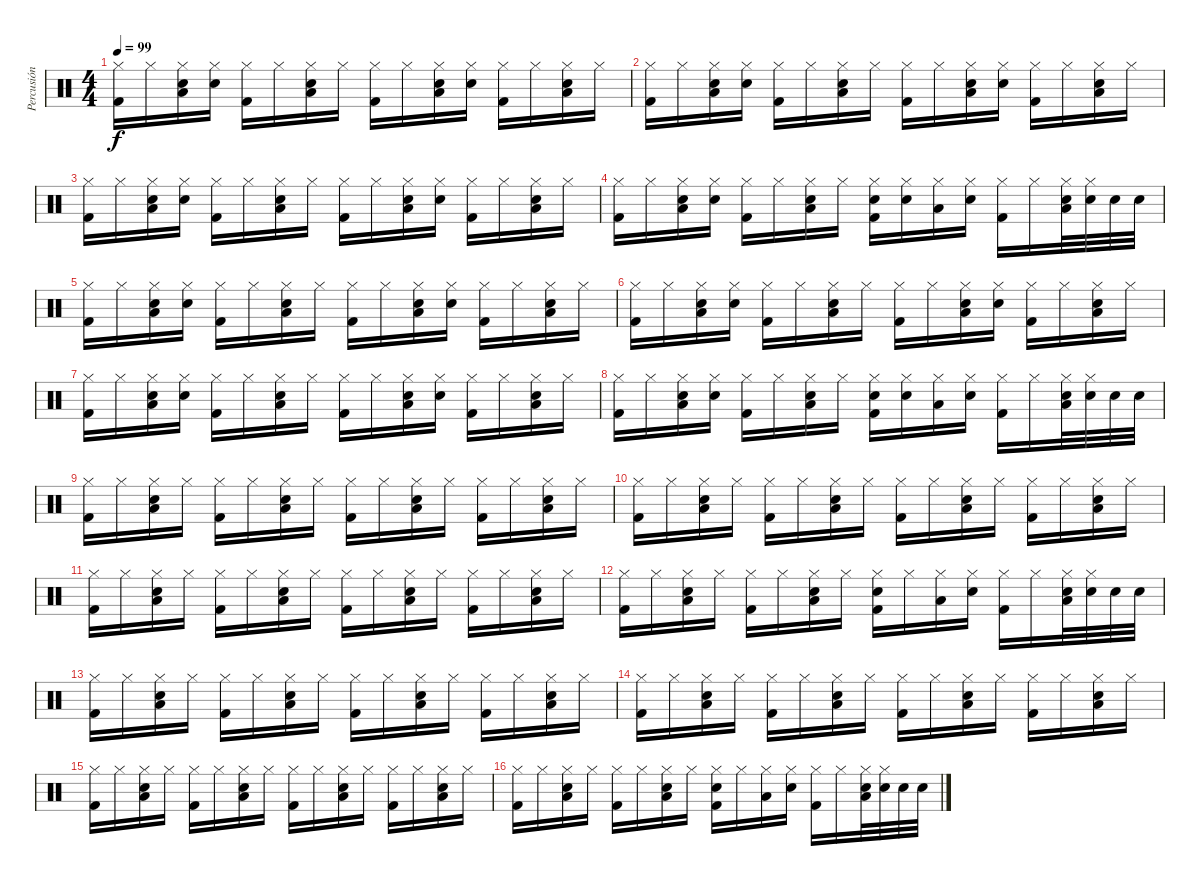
\track ("Percusión" "Percusión") {instrument percussion}
\staff {score}
\articulation defaults
\ts (4 4)
\tempo 99
\clef neutral
\ks c
("Hi-Hat (closed)" "Kick (hit) 2").16{dy f} "Hi-Hat (closed)".16 ("Hi-Hat (closed)" "Snare (hit) 2" "Low Tom (hit)").16 ("Hi-Hat (closed)" "Snare (hit) 2").16 ("Hi-Hat (closed)" "Kick (hit) 2").16 "Hi-Hat (closed)".16 ("Hi-Hat (closed)" "Snare (hit) 2" "Low Tom (hit)").16 "Hi-Hat (closed)".16 ("Hi-Hat (closed)" "Kick (hit) 2").16 "Hi-Hat (closed)".16 ("Hi-Hat (closed)" "Snare (hit) 2" "Low Tom (hit)").16 ("Hi-Hat (closed)" "Snare (hit) 2").16 ("Hi-Hat (closed)" "Kick (hit) 2").16 "Hi-Hat (closed)".16 ("Hi-Hat (closed)" "Snare (hit) 2" "Low Tom (hit)").16 "Hi-Hat (closed)".16 |
("Hi-Hat (closed)" "Kick (hit) 2").16 "Hi-Hat (closed)".16 ("Hi-Hat (closed)" "Snare (hit) 2" "Low Tom (hit)").16 ("Hi-Hat (closed)" "Snare (hit) 2").16 ("Hi-Hat (closed)" "Kick (hit) 2").16 "Hi-Hat (closed)".16 ("Hi-Hat (closed)" "Snare (hit) 2" "Low Tom (hit)").16 "Hi-Hat (closed)".16 ("Hi-Hat (closed)" "Kick (hit) 2").16 "Hi-Hat (closed)".16 ("Hi-Hat (closed)" "Snare (hit) 2" "Low Tom (hit)").16 ("Hi-Hat (closed)" "Snare (hit) 2").16 ("Hi-Hat (closed)" "Kick (hit) 2").16 "Hi-Hat (closed)".16 ("Hi-Hat (closed)" "Snare (hit) 2" "Low Tom (hit)").16 "Hi-Hat (closed)".16 |
("Hi-Hat (closed)" "Kick (hit) 2").16 "Hi-Hat (closed)".16 ("Hi-Hat (closed)" "Snare (hit) 2" "Low Tom (hit)").16 ("Hi-Hat (closed)" "Snare (hit) 2").16 ("Hi-Hat (closed)" "Kick (hit) 2").16 "Hi-Hat (closed)".16 ("Hi-Hat (closed)" "Snare (hit) 2" "Low Tom (hit)").16 "Hi-Hat (closed)".16 ("Hi-Hat (closed)" "Kick (hit) 2").16 "Hi-Hat (closed)".16 ("Hi-Hat (closed)" "Snare (hit) 2" "Low Tom (hit)").16 ("Hi-Hat (closed)" "Snare (hit) 2").16 ("Hi-Hat (closed)" "Kick (hit) 2").16 "Hi-Hat (closed)".16 ("Hi-Hat (closed)" "Snare (hit) 2" "Low Tom (hit)").16 "Hi-Hat (closed)".16 |
("Hi-Hat (closed)" "Kick (hit) 2").16 "Hi-Hat (closed)".16 ("Hi-Hat (closed)" "Snare (hit) 2" "Low Tom (hit)").16 ("Hi-Hat (closed)" "Snare (hit) 2").16 ("Hi-Hat (closed)" "Kick (hit) 2").16 "Hi-Hat (closed)".16 ("Hi-Hat (closed)" "Snare (hit) 2" "Low Tom (hit)").16 "Hi-Hat (closed)".16 ("Hi-Hat (closed)" "Snare (hit) 2" "Kick (hit) 2").16 ("Hi-Hat (closed)" "Snare (hit) 2").16 ("Hi-Hat (closed)" "Low Tom (hit)").16 ("Hi-Hat (closed)" "Snare (hit) 2").16 ("Hi-Hat (closed)" "Kick (hit) 2").16 "Hi-Hat (closed)".16 ("Hi-Hat (closed)" "Snare (hit) 2" "Low Tom (hit)").32 ("Hi-Hat (closed)" "Snare (hit) 2").32 "Snare (hit) 2".32 "Snare (hit) 2".32 |
("Hi-Hat (closed)" "Kick (hit) 2").16 "Hi-Hat (closed)".16 ("Hi-Hat (closed)" "Snare (hit) 2" "Low Tom (hit)").16 ("Hi-Hat (closed)" "Snare (hit) 2").16 ("Hi-Hat (closed)" "Kick (hit) 2").16 "Hi-Hat (closed)".16 ("Hi-Hat (closed)" "Snare (hit) 2" "Low Tom (hit)").16 "Hi-Hat (closed)".16 ("Hi-Hat (closed)" "Kick (hit) 2").16 "Hi-Hat (closed)".16 ("Hi-Hat (closed)" "Snare (hit) 2" "Low Tom (hit)").16 ("Hi-Hat (closed)" "Snare (hit) 2").16 ("Hi-Hat (closed)" "Kick (hit) 2").16 "Hi-Hat (closed)".16 ("Hi-Hat (closed)" "Snare (hit) 2" "Low Tom (hit)").16 "Hi-Hat (closed)".16 |
("Hi-Hat (closed)" "Kick (hit) 2").16 "Hi-Hat (closed)".16 ("Hi-Hat (closed)" "Snare (hit) 2" "Low Tom (hit)").16 ("Hi-Hat (closed)" "Snare (hit) 2").16 ("Hi-Hat (closed)" "Kick (hit) 2").16 "Hi-Hat (closed)".16 ("Hi-Hat (closed)" "Snare (hit) 2" "Low Tom (hit)").16 "Hi-Hat (closed)".16 ("Hi-Hat (closed)" "Kick (hit) 2").16 "Hi-Hat (closed)".16 ("Hi-Hat (closed)" "Snare (hit) 2" "Low Tom (hit)").16 ("Hi-Hat (closed)" "Snare (hit) 2").16 ("Hi-Hat (closed)" "Kick (hit) 2").16 "Hi-Hat (closed)".16 ("Hi-Hat (closed)" "Snare (hit) 2" "Low Tom (hit)").16 "Hi-Hat (closed)".16 |
("Hi-Hat (closed)" "Kick (hit) 2").16 "Hi-Hat (closed)".16 ("Hi-Hat (closed)" "Snare (hit) 2" "Low Tom (hit)").16 ("Hi-Hat (closed)" "Snare (hit) 2").16 ("Hi-Hat (closed)" "Kick (hit) 2").16 "Hi-Hat (closed)".16 ("Hi-Hat (closed)" "Snare (hit) 2" "Low Tom (hit)").16 "Hi-Hat (closed)".16 ("Hi-Hat (closed)" "Kick (hit) 2").16 "Hi-Hat (closed)".16 ("Hi-Hat (closed)" "Snare (hit) 2" "Low Tom (hit)").16 ("Hi-Hat (closed)" "Snare (hit) 2").16 ("Hi-Hat (closed)" "Kick (hit) 2").16 "Hi-Hat (closed)".16 ("Hi-Hat (closed)" "Snare (hit) 2" "Low Tom (hit)").16 "Hi-Hat (closed)".16 |
("Hi-Hat (closed)" "Kick (hit) 2").16 "Hi-Hat (closed)".16 ("Hi-Hat (closed)" "Snare (hit) 2" "Low Tom (hit)").16 ("Hi-Hat (closed)" "Snare (hit) 2").16 ("Hi-Hat (closed)" "Kick (hit) 2").16 "Hi-Hat (closed)".16 ("Hi-Hat (closed)" "Snare (hit) 2" "Low Tom (hit)").16 "Hi-Hat (closed)".16 ("Hi-Hat (closed)" "Snare (hit) 2" "Kick (hit) 2").16 ("Hi-Hat (closed)" "Snare (hit) 2").16 ("Hi-Hat (closed)" "Low Tom (hit)").16 ("Hi-Hat (closed)" "Snare (hit) 2").16 ("Hi-Hat (closed)" "Kick (hit) 2").16 "Hi-Hat (closed)".16 ("Hi-Hat (closed)" "Snare (hit) 2" "Low Tom (hit)").32 ("Hi-Hat (closed)" "Snare (hit) 2").32 "Snare (hit) 2".32 "Snare (hit) 2".32 |
("Hi-Hat (closed)" "Kick (hit) 2").16 "Hi-Hat (closed)".16 ("Hi-Hat (closed)" "Snare (hit) 2" "Low Tom (hit)").16 "Hi-Hat (closed)".16 ("Hi-Hat (closed)" "Kick (hit) 2").16 "Hi-Hat (closed)".16 ("Hi-Hat (closed)" "Snare (hit) 2" "Low Tom (hit)").16 "Hi-Hat (closed)".16 ("Hi-Hat (closed)" "Kick (hit) 2").16 "Hi-Hat (closed)".16 ("Hi-Hat (closed)" "Snare (hit) 2" "Low Tom (hit)").16 "Hi-Hat (closed)".16 ("Hi-Hat (closed)" "Kick (hit) 2").16 "Hi-Hat (closed)".16 ("Hi-Hat (closed)" "Snare (hit) 2" "Low Tom (hit)").16 "Hi-Hat (closed)".16 |
("Hi-Hat (closed)" "Kick (hit) 2").16 "Hi-Hat (closed)".16 ("Hi-Hat (closed)" "Snare (hit) 2" "Low Tom (hit)").16 "Hi-Hat (closed)".16 ("Hi-Hat (closed)" "Kick (hit) 2").16 "Hi-Hat (closed)".16 ("Hi-Hat (closed)" "Snare (hit) 2" "Low Tom (hit)").16 "Hi-Hat (closed)".16 ("Hi-Hat (closed)" "Kick (hit) 2").16 "Hi-Hat (closed)".16 ("Hi-Hat (closed)" "Snare (hit) 2" "Low Tom (hit)").16 "Hi-Hat (closed)".16 ("Hi-Hat (closed)" "Kick (hit) 2").16 "Hi-Hat (closed)".16 ("Hi-Hat (closed)" "Snare (hit) 2" "Low Tom (hit)").16 "Hi-Hat (closed)".16 |
("Hi-Hat (closed)" "Kick (hit) 2").16 "Hi-Hat (closed)".16 ("Hi-Hat (closed)" "Snare (hit) 2" "Low Tom (hit)").16 "Hi-Hat (closed)".16 ("Hi-Hat (closed)" "Kick (hit) 2").16 "Hi-Hat (closed)".16 ("Hi-Hat (closed)" "Snare (hit) 2" "Low Tom (hit)").16 "Hi-Hat (closed)".16 ("Hi-Hat (closed)" "Kick (hit) 2").16 "Hi-Hat (closed)".16 ("Hi-Hat (closed)" "Snare (hit) 2" "Low Tom (hit)").16 "Hi-Hat (closed)".16 ("Hi-Hat (closed)" "Kick (hit) 2").16 "Hi-Hat (closed)".16 ("Hi-Hat (closed)" "Snare (hit) 2" "Low Tom (hit)").16 "Hi-Hat (closed)".16 |
("Hi-Hat (closed)" "Kick (hit) 2").16 "Hi-Hat (closed)".16 ("Hi-Hat (closed)" "Snare (hit) 2" "Low Tom (hit)").16 "Hi-Hat (closed)".16 ("Hi-Hat (closed)" "Kick (hit) 2").16 "Hi-Hat (closed)".16 ("Hi-Hat (closed)" "Snare (hit) 2" "Low Tom (hit)").16 "Hi-Hat (closed)".16 ("Hi-Hat (closed)" "Snare (hit) 2" "Kick (hit) 2").16 "Hi-Hat (closed)".16 ("Hi-Hat (closed)" "Low Tom (hit)").16 ("Hi-Hat (closed)" "Snare (hit) 2").16 ("Hi-Hat (closed)" "Kick (hit) 2").16 "Hi-Hat (closed)".16 ("Hi-Hat (closed)" "Snare (hit) 2" "Low Tom (hit)").32 ("Hi-Hat (closed)" "Snare (hit) 2").32 "Snare (hit) 2".32 "Snare (hit) 2".32 |
("Hi-Hat (closed)" "Kick (hit) 2").16 "Hi-Hat (closed)".16 ("Hi-Hat (closed)" "Snare (hit) 2" "Low Tom (hit)").16 "Hi-Hat (closed)".16 ("Hi-Hat (closed)" "Kick (hit) 2").16 "Hi-Hat (closed)".16 ("Hi-Hat (closed)" "Snare (hit) 2" "Low Tom (hit)").16 "Hi-Hat (closed)".16 ("Hi-Hat (closed)" "Kick (hit) 2").16 "Hi-Hat (closed)".16 ("Hi-Hat (closed)" "Snare (hit) 2" "Low Tom (hit)").16 "Hi-Hat (closed)".16 ("Hi-Hat (closed)" "Kick (hit) 2").16 "Hi-Hat (closed)".16 ("Hi-Hat (closed)" "Snare (hit) 2" "Low Tom (hit)").16 "Hi-Hat (closed)".16 |
("Hi-Hat (closed)" "Kick (hit) 2").16 "Hi-Hat (closed)".16 ("Hi-Hat (closed)" "Snare (hit) 2" "Low Tom (hit)").16 "Hi-Hat (closed)".16 ("Hi-Hat (closed)" "Kick (hit) 2").16 "Hi-Hat (closed)".16 ("Hi-Hat (closed)" "Snare (hit) 2" "Low Tom (hit)").16 "Hi-Hat (closed)".16 ("Hi-Hat (closed)" "Kick (hit) 2").16 "Hi-Hat (closed)".16 ("Hi-Hat (closed)" "Snare (hit) 2" "Low Tom (hit)").16 "Hi-Hat (closed)".16 ("Hi-Hat (closed)" "Kick (hit) 2").16 "Hi-Hat (closed)".16 ("Hi-Hat (closed)" "Snare (hit) 2" "Low Tom (hit)").16 "Hi-Hat (closed)".16 |
("Hi-Hat (closed)" "Kick (hit) 2").16 "Hi-Hat (closed)".16 ("Hi-Hat (closed)" "Snare (hit) 2" "Low Tom (hit)").16 "Hi-Hat (closed)".16 ("Hi-Hat (closed)" "Kick (hit) 2").16 "Hi-Hat (closed)".16 ("Hi-Hat (closed)" "Snare (hit) 2" "Low Tom (hit)").16 "Hi-Hat (closed)".16 ("Hi-Hat (closed)" "Kick (hit) 2").16 "Hi-Hat (closed)".16 ("Hi-Hat (closed)" "Snare (hit) 2" "Low Tom (hit)").16 "Hi-Hat (closed)".16 ("Hi-Hat (closed)" "Kick (hit) 2").16 "Hi-Hat (closed)".16 ("Hi-Hat (closed)" "Snare (hit) 2" "Low Tom (hit)").16 "Hi-Hat (closed)".16 |
("Hi-Hat (closed)" "Kick (hit) 2").16 "Hi-Hat (closed)".16 ("Hi-Hat (closed)" "Snare (hit) 2" "Low Tom (hit)").16 "Hi-Hat (closed)".16 ("Hi-Hat (closed)" "Kick (hit) 2").16 "Hi-Hat (closed)".16 ("Hi-Hat (closed)" "Snare (hit) 2" "Low Tom (hit)").16 "Hi-Hat (closed)".16 ("Hi-Hat (closed)" "Snare (hit) 2" "Kick (hit) 2").16 "Hi-Hat (closed)".16 ("Hi-Hat (closed)" "Low Tom (hit)").16 ("Hi-Hat (closed)" "Snare (hit) 2").16 ("Hi-Hat (closed)" "Kick (hit) 2").16 "Hi-Hat (closed)".16 ("Hi-Hat (closed)" "Snare (hit) 2" "Low Tom (hit)").32 ("Hi-Hat (closed)" "Snare (hit) 2").32 "Snare (hit) 2".32 "Snare (hit) 2".32
